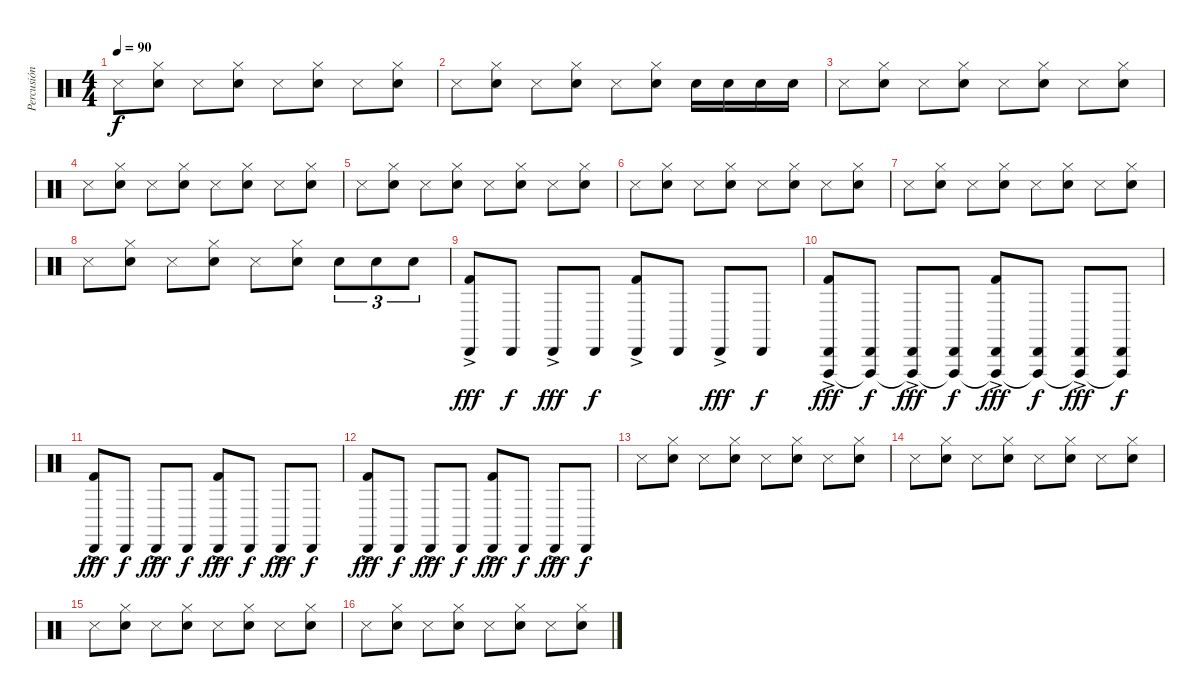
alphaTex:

\track ("Percusión" "Percusión") {instrument percussion}
\staff {score}
\articulation defaults
\ts (4 4)
\tempo 90
\clef neutral
\ks c "Snare (side stick) 3".8{dy f}
("Electric Snare (hit)" "Hi-Hat (closed)").8 "Snare (side stick) 3".8 ("Electric Snare (hit)" "Hi-Hat (closed)").8 "Snare (side stick) 3".8 ("Electric Snare (hit)" "Hi-Hat (closed)").8 "Snare (side stick) 3".8 ("Electric Snare (hit)" "Hi-Hat (closed)").8 |
"Snare (side stick) 3".8 ("Electric Snare (hit)" "Hi-Hat (closed)").8 "Snare (side stick) 3".8 ("Electric Snare (hit)" "Hi-Hat (closed)").8 "Snare (side stick) 3".8 ("Electric Snare (hit)" "Hi-Hat (closed)").8 "Electric Snare (hit)".16 "Electric Snare (hit)".16 "Electric Snare (hit)".16 "Electric Snare (hit)".16 |
"Snare (side stick) 3".8 ("Electric Snare (hit)" "Hi-Hat (closed)").8 "Snare (side stick) 3".8 ("Electric Snare (hit)" "Hi-Hat (closed)").8 "Snare (side stick) 3".8 ("Electric Snare (hit)" "Hi-Hat (closed)").8 "Snare (side stick) 3".8 ("Electric Snare (hit)" "Hi-Hat (closed)").8 |
"Snare (side stick) 3".8 ("Electric Snare (hit)" "Hi-Hat (closed)").8 "Snare (side stick) 3".8 ("Electric Snare (hit)" "Hi-Hat (closed)").8 "Snare (side stick) 3".8 ("Electric Snare (hit)" "Hi-Hat (closed)").8 "Snare (side stick) 3".8 ("Electric Snare (hit)" "Hi-Hat (closed)").8 |
"Snare (side stick) 3".8 ("Electric Snare (hit)" "Hi-Hat (closed)").8 "Snare (side stick) 3".8 ("Electric Snare (hit)" "Hi-Hat (closed)").8 "Snare (side stick) 3".8 ("Electric Snare (hit)" "Hi-Hat (closed)").8 "Snare (side stick) 3".8 ("Electric Snare (hit)" "Hi-Hat (closed)").8 |
"Snare (side stick) 3".8 ("Electric Snare (hit)" "Hi-Hat (closed)").8 "Snare (side stick) 3".8 ("Electric Snare (hit)" "Hi-Hat (closed)").8 "Snare (side stick) 3".8 ("Electric Snare (hit)" "Hi-Hat (closed)").8 "Snare (side stick) 3".8 ("Electric Snare (hit)" "Hi-Hat (closed)").8 |
"Snare (side stick) 3".8 ("Electric Snare (hit)" "Hi-Hat (closed)").8 "Snare (side stick) 3".8 ("Electric Snare (hit)" "Hi-Hat (closed)").8 "Snare (side stick) 3".8 ("Electric Snare (hit)" "Hi-Hat (closed)").8 "Snare (side stick) 3".8 ("Electric Snare (hit)" "Hi-Hat (closed)").8 |
"Snare (side stick) 3".8 ("Electric Snare (hit)" "Hi-Hat (closed)").8 "Snare (side stick) 3".8 ("Electric Snare (hit)" "Hi-Hat (closed)").8 "Snare (side stick) 3".8 ("Electric Snare (hit)" "Hi-Hat (closed)").8 "Electric Snare (hit)".8{tu (3 2)} "Electric Snare (hit)".8{tu (3 2)} "Electric Snare (hit)".8{tu (3 2)} |
("Cabasa (hit)"{ac} "Kick (hit) 2").8{dy fff} "Cabasa (hit)".8{dy f} "Cabasa (hit)"{ac}.8{dy fff} "Cabasa (hit)".8{dy f} ("Cabasa (hit)" "Kick (hit) 2"{ac}).8 "Cabasa (hit)".8 "Cabasa (hit)"{ac}.8{dy fff} "Cabasa (hit)".8{dy f} |
("Cabasa (hit)"{ac} "Vibraslap (hit)" "Kick (hit) 2").8{dy fff} ("Cabasa (hit)" "Vibraslap (hit)"{t}).8{dy f} ("Cabasa (hit)"{ac} "Vibraslap (hit)"{t}).8{dy fff} ("Cabasa (hit)" "Vibraslap (hit)"{t}).8{dy f} ("Cabasa (hit)"{ac} "Vibraslap (hit)"{t} "Kick (hit) 2").8{dy fff} ("Cabasa (hit)" "Vibraslap (hit)"{t}).8{dy f} ("Cabasa (hit)"{ac} "Vibraslap (hit)"{t}).8{dy fff} ("Cabasa (hit)" "Vibraslap (hit)"{t}).8{dy f} |
("Cabasa (hit)"{ac} "Kick (hit) 2").8{dy fff} "Cabasa (hit)".8{dy f} "Cabasa (hit)"{ac}.8{dy fff} "Cabasa (hit)".8{dy f} ("Cabasa (hit)"{ac} "Kick (hit) 2").8{dy fff} "Cabasa (hit)".8{dy f} "Cabasa (hit)"{ac}.8{dy fff} "Cabasa (hit)".8{dy f} |
("Cabasa (hit)"{ac} "Kick (hit) 2").8{dy fff} "Cabasa (hit)".8{dy f} "Cabasa (hit)"{ac}.8{dy fff} "Cabasa (hit)".8{dy f} ("Cabasa (hit)"{ac} "Kick (hit) 2").8{dy fff} "Cabasa (hit)".8{dy f} "Cabasa (hit)"{ac}.8{dy fff} "Cabasa (hit)".8{dy f} |
"Snare (side stick) 3".8 ("Electric Snare (hit)" "Hi-Hat (closed)").8 "Snare (side stick) 3".8 ("Electric Snare (hit)" "Hi-Hat (closed)").8 "Snare (side stick) 3".8 ("Electric Snare (hit)" "Hi-Hat (closed)").8 "Snare (side stick) 3".8 ("Electric Snare (hit)" "Hi-Hat (closed)").8 |
"Snare (side stick) 3".8 ("Electric Snare (hit)" "Hi-Hat (closed)").8 "Snare (side stick) 3".8 ("Electric Snare (hit)" "Hi-Hat (closed)").8 "Snare (side stick) 3".8 ("Electric Snare (hit)" "Hi-Hat (closed)").8 "Snare (side stick) 3".8 ("Electric Snare (hit)" "Hi-Hat (closed)").8 |
"Snare (side stick) 3".8 ("Electric Snare (hit)" "Hi-Hat (closed)").8 "Snare (side stick) 3".8 ("Electric Snare (hit)" "Hi-Hat (closed)").8 "Snare (side stick) 3".8 ("Electric Snare (hit)" "Hi-Hat (closed)").8 "Snare (side stick) 3".8 ("Electric Snare (hit)" "Hi-Hat (closed)").8 |
"Snare (side stick) 3".8 ("Electric Snare (hit)" "Hi-Hat (closed)").8 "Snare (side stick) 3".8 ("Electric Snare (hit)" "Hi-Hat (closed)").8 "Snare (side stick) 3".8 ("Electric Snare (hit)" "Hi-Hat (closed)").8 "Snare (side stick) 3".8 ("Electric Snare (hit)" "Hi-Hat (closed)").8
